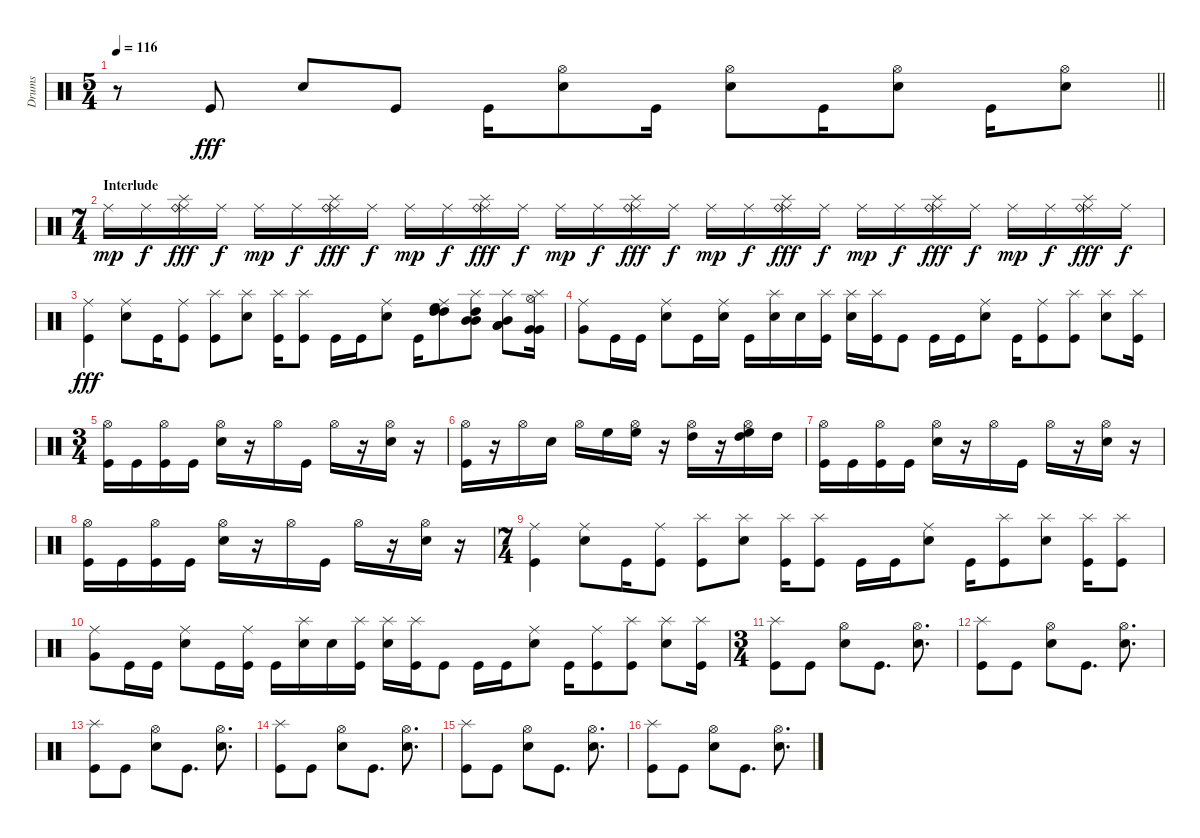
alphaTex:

\track ("Drums" "Drums") {instrument percussion}
\staff {score}
\articulation defaults
\ts (5 4)
\tempo 116
\clef neutral
\barLineRight lightlight
\ks c
r.8{dy fff} "Kick (hit)".8 "Electric Snare (hit)".8 "Kick (hit)".8 "Kick (hit)".16 ("Hi-Hat (open)" "Electric Snare (hit)").8 "Kick (hit)".16 ("Hi-Hat (open)" "Electric Snare (hit)").8 "Kick (hit)".16 ("Hi-Hat (open)" "Electric Snare (hit)").8 "Kick (hit)".16 ("Hi-Hat (open)" "Electric Snare (hit)").8 |
\ts (7 4)
\section ("" "Interlude")
"Ride (middle)".16{dy mp} "Ride (middle)".16{dy f} ("Splash (hit)" "Ride (middle)" "Ride (bell)").16{dy fff} "Ride (middle)".16{dy f} "Ride (middle)".16{dy mp} "Ride (middle)".16{dy f} ("Splash (hit)" "Ride (middle)" "Ride (bell)").16{dy fff} "Ride (middle)".16{dy f} "Ride (middle)".16{dy mp} "Ride (middle)".16{dy f} ("Splash (hit)" "Ride (middle)" "Ride (bell)").16{dy fff} "Ride (middle)".16{dy f} "Ride (middle)".16{dy mp} "Ride (middle)".16{dy f} ("Splash (hit)" "Ride (middle)" "Ride (bell)").16{dy fff} "Ride (middle)".16{dy f} "Ride (middle)".16{dy mp} "Ride (middle)".16{dy f} ("Splash (hit)" "Ride (middle)" "Ride (bell)").16{dy fff} "Ride (middle)".16{dy f} "Ride (middle)".16{dy mp} "Ride (middle)".16{dy f} ("Splash (hit)" "Ride (middle)" "Ride (bell)").16{dy fff} "Ride (middle)".16{dy f} "Ride (middle)".16{dy mp} "Ride (middle)".16{dy f} ("Splash (hit)" "Ride (middle)" "Ride (bell)").16{dy fff} "Ride (middle)".16{dy f} |
("Ride (middle)" "Kick (hit)").4{dy fff} ("Ride (middle)" "Electric Snare (hit)").8 "Kick (hit)".16 ("Ride (middle)" "Kick (hit)").8 ("Splash (hit)" "Kick (hit)").8 ("Splash (hit)" "Electric Snare (hit)").8 ("Splash (hit)" "Kick (hit)").16 ("Splash (hit)" "Kick (hit)").8 "Kick (hit)".16 "Kick (hit)".16 ("Ride (middle)" "Electric Snare (hit)").8 "Kick (hit)".16 ("Ride (middle)" "High Floor Tom (hit)" "High Tom (hit)" "High Tom (hit)").8 ("Splash (hit)" "High Tom (hit)" "Mid Tom (hit)" "Mid Tom (hit)").8 ("Splash (hit)" "Mid Tom (hit)" "Low Tom (hit)" "Low Tom (hit)").8 ("Splash (hit)" "Hi-Hat (open)" "Very Low Tom (hit)" "Very Low Tom (hit)").16 |
("Ride (middle)" "Very Low Tom (hit)").8 "Kick (hit)".16 "Kick (hit)".16 ("Ride (middle)" "Electric Snare (hit)").8 "Kick (hit)".16 ("Ride (middle)" "Electric Snare (hit)").16 "Kick (hit)".16 ("Splash (hit)" "Electric Snare (hit)").16 "Electric Snare (hit)".16 ("Splash (hit)" "Kick (hit)").16 ("Splash (hit)" "Electric Snare (hit)").16 ("Splash (hit)" "Kick (hit)").16 "Kick (hit)".8 "Kick (hit)".16 "Kick (hit)".16 ("Ride (middle)" "Electric Snare (hit)").8 "Kick (hit)".16 ("Ride (middle)" "Kick (hit)").8 ("Splash (hit)" "Kick (hit)").8 ("Splash (hit)" "Electric Snare (hit)").8 ("Splash (hit)" "Kick (hit)").16 |
\ts (3 4)
("Hi-Hat (open)" "Kick (hit)").16 "Kick (hit)".16 ("Hi-Hat (open)" "Kick (hit)").16 "Kick (hit)".16 ("Hi-Hat (open)" "Electric Snare (hit)").16 r.16 "Hi-Hat (open)".16 "Kick (hit)".16 "Hi-Hat (open)".16 r.16 ("Hi-Hat (open)" "Electric Snare (hit)").16 r.16 |
("Hi-Hat (open)" "Kick (hit)").16 r.16 "Hi-Hat (open)".16 "Electric Snare (hit)".16 "Hi-Hat (open)".16 "High Floor Tom (hit)".16 ("Hi-Hat (open)" "High Floor Tom (hit)").16 r.16 ("Hi-Hat (open)" "High Tom (hit)").16 r.16 ("Hi-Hat (open)" "High Floor Tom (hit)" "High Tom (hit)").16 "High Tom (hit)".16 |
("Hi-Hat (open)" "Kick (hit)").16 "Kick (hit)".16 ("Hi-Hat (open)" "Kick (hit)").16 "Kick (hit)".16 ("Hi-Hat (open)" "Electric Snare (hit)").16 r.16 "Hi-Hat (open)".16 "Kick (hit)".16 "Hi-Hat (open)".16 r.16 ("Hi-Hat (open)" "Electric Snare (hit)").16 r.16 |
("Hi-Hat (open)" "Kick (hit)").16 "Kick (hit)".16 ("Hi-Hat (open)" "Kick (hit)").16 "Kick (hit)".16 ("Hi-Hat (open)" "Electric Snare (hit)").16 r.16 "Hi-Hat (open)".16 "Kick (hit)".16 "Hi-Hat (open)".16 r.16 ("Hi-Hat (open)" "Electric Snare (hit)").16 r.16 |
\ts (7 4)
("Ride (middle)" "Kick (hit)").4 ("Ride (middle)" "Electric Snare (hit)").8 "Kick (hit)".16 ("Ride (middle)" "Kick (hit)").8 ("Splash (hit)" "Kick (hit)").8 ("Splash (hit)" "Electric Snare (hit)").8 ("Splash (hit)" "Kick (hit)").16 ("Splash (hit)" "Kick (hit)").8 "Kick (hit)".16 "Kick (hit)".16 ("Ride (middle)" "Electric Snare (hit)").8 "Kick (hit)".16 ("Splash (hit)" "Kick (hit)").8 ("Splash (hit)" "Electric Snare (hit)").8 ("Splash (hit)" "Kick (hit)").16 ("Splash (hit)" "Kick (hit)").8 |
("Ride (middle)" "Very Low Tom (hit)").8 "Kick (hit)".16 "Kick (hit)".16 ("Ride (middle)" "Electric Snare (hit)").8 "Kick (hit)".16 ("Ride (middle)" "Kick (hit)").16 "Kick (hit)".16 ("Splash (hit)" "Electric Snare (hit)").16 "Electric Snare (hit)".16 ("Splash (hit)" "Kick (hit)").16 ("Splash (hit)" "Electric Snare (hit)").16 ("Splash (hit)" "Kick (hit)").16 "Kick (hit)".8 "Kick (hit)".16 "Kick (hit)".16 ("Ride (middle)" "Electric Snare (hit)").8 "Kick (hit)".16 ("Ride (middle)" "Kick (hit)").8 ("Splash (hit)" "Kick (hit)").8 ("Splash (hit)" "Electric Snare (hit)").8 ("Splash (hit)" "Kick (hit)").16 |
\ts (3 4)
("Splash (hit)" "Kick (hit)").8 "Kick (hit)".8 ("Hi-Hat (open)" "Electric Snare (hit)").8 "Kick (hit)".8{d} ("Hi-Hat (open)" "Electric Snare (hit)").8{d} |
("Splash (hit)" "Kick (hit)").8 "Kick (hit)".8 ("Hi-Hat (open)" "Electric Snare (hit)").8 "Kick (hit)".8{d} ("Hi-Hat (open)" "Electric Snare (hit)").8{d} |
("Splash (hit)" "Kick (hit)").8 "Kick (hit)".8 ("Hi-Hat (open)" "Electric Snare (hit)").8 "Kick (hit)".8{d} ("Hi-Hat (open)" "Electric Snare (hit)").8{d} |
("Splash (hit)" "Kick (hit)").8 "Kick (hit)".8 ("Hi-Hat (open)" "Electric Snare (hit)").8 "Kick (hit)".8{d} ("Hi-Hat (open)" "Electric Snare (hit)").8{d} |
("Splash (hit)" "Kick (hit)").8 "Kick (hit)".8 ("Hi-Hat (open)" "Electric Snare (hit)").8 "Kick (hit)".8{d} ("Hi-Hat (open)" "Electric Snare (hit)").8{d} |
("Splash (hit)" "Kick (hit)").8 "Kick (hit)".8 ("Hi-Hat (open)" "Electric Snare (hit)").8 "Kick (hit)".8{d} ("Hi-Hat (open)" "Electric Snare (hit)").8{d}
